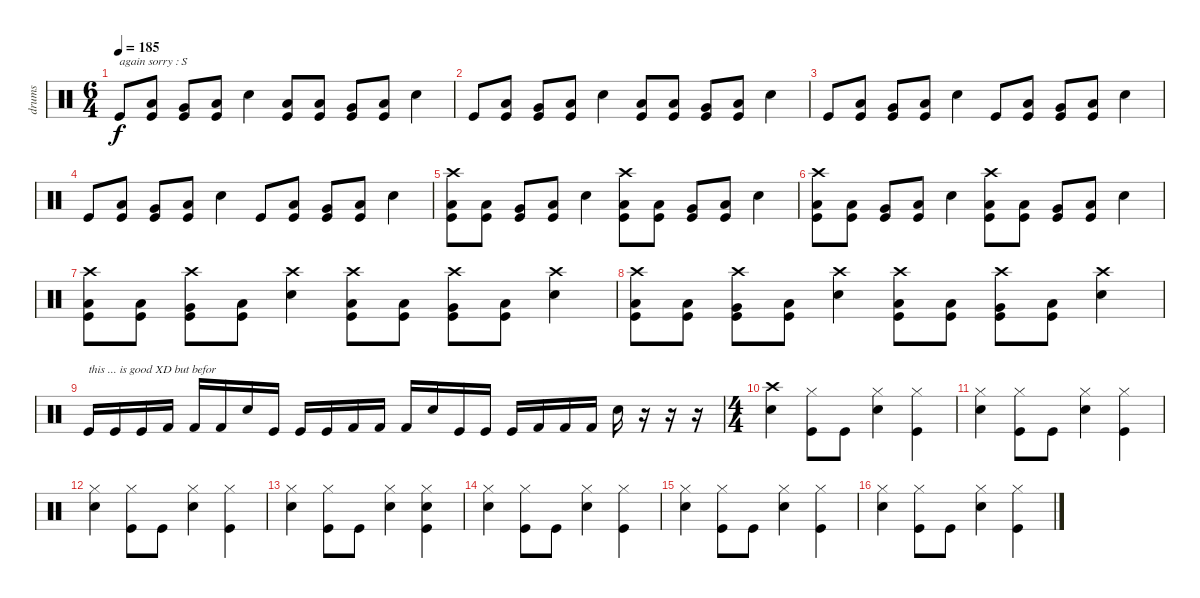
\track ("drums" "drums") {instrument percussion}
\staff {score}
\articulation defaults
\ts (6 4)
\tempo 185
\clef neutral
\ks c "Kick (hit)".8{txt "again sorry : S " dy f}
("Low Tom (hit)" "Kick (hit)").8 ("Very Low Tom (hit)" "Kick (hit)").8 ("Low Floor Tom (hit)" "Kick (hit)").8 "Electric Snare (hit)".4 ("Low Tom (hit)" "Kick (hit)").8 ("Low Tom (hit)" "Kick (hit)").8 ("Very Low Tom (hit)" "Kick (hit)").8 ("Low Floor Tom (hit)" "Kick (hit)").8 "Electric Snare (hit)".4 |
"Kick (hit)".8 ("Low Tom (hit)" "Kick (hit)").8 ("Very Low Tom (hit)" "Kick (hit)").8 ("Low Floor Tom (hit)" "Kick (hit)").8 "Electric Snare (hit)".4 ("Low Tom (hit)" "Kick (hit)").8 ("Low Tom (hit)" "Kick (hit)").8 ("Very Low Tom (hit)" "Kick (hit)").8 ("Low Floor Tom (hit)" "Kick (hit)").8 "Electric Snare (hit)".4 |
"Kick (hit)".8 ("Low Tom (hit)" "Kick (hit)").8 ("Very Low Tom (hit)" "Kick (hit)").8 ("Low Floor Tom (hit)" "Kick (hit)").8 "Electric Snare (hit)".4 "Kick (hit)".8 ("Low Tom (hit)" "Kick (hit)").8 ("Very Low Tom (hit)" "Kick (hit)").8 ("Low Floor Tom (hit)" "Kick (hit)").8 "Electric Snare (hit)".4 |
"Kick (hit)".8 ("Low Tom (hit)" "Kick (hit)").8 ("Very Low Tom (hit)" "Kick (hit)").8 ("Low Floor Tom (hit)" "Kick (hit)").8 "Electric Snare (hit)".4 "Kick (hit)".8 ("Low Tom (hit)" "Kick (hit)").8 ("Very Low Tom (hit)" "Kick (hit)").8 ("Low Floor Tom (hit)" "Kick (hit)").8 "Electric Snare (hit)".4 |
("Crash high (hit)" "Low Tom (hit)" "Kick (hit)").8 ("Low Tom (hit)" "Kick (hit)").8 ("Very Low Tom (hit)" "Kick (hit)").8 ("Low Floor Tom (hit)" "Kick (hit)").8 "Electric Snare (hit)".4 ("Crash high (hit)" "Low Tom (hit)" "Kick (hit)").8 ("Low Tom (hit)" "Kick (hit)").8 ("Very Low Tom (hit)" "Kick (hit)").8 ("Low Floor Tom (hit)" "Kick (hit)").8 "Electric Snare (hit)".4 |
("Crash high (hit)" "Low Tom (hit)" "Kick (hit)").8 ("Low Tom (hit)" "Kick (hit)").8 ("Very Low Tom (hit)" "Kick (hit)").8 ("Low Floor Tom (hit)" "Kick (hit)").8 "Electric Snare (hit)".4 ("Crash high (hit)" "Low Tom (hit)" "Kick (hit)").8 ("Low Tom (hit)" "Kick (hit)").8 ("Very Low Tom (hit)" "Kick (hit)").8 ("Low Floor Tom (hit)" "Kick (hit)").8 "Electric Snare (hit)".4 |
("Crash high (hit)" "Low Tom (hit)" "Kick (hit)").8 ("Low Tom (hit)" "Kick (hit)").8 ("Crash high (hit)" "Very Low Tom (hit)" "Kick (hit)").8 ("Low Floor Tom (hit)" "Kick (hit)").8 ("Crash high (hit)" "Electric Snare (hit)").4 ("Crash high (hit)" "Low Tom (hit)" "Kick (hit)").8 ("Low Tom (hit)" "Kick (hit)").8 ("Crash high (hit)" "Very Low Tom (hit)" "Kick (hit)").8 ("Low Floor Tom (hit)" "Kick (hit)").8 ("Crash high (hit)" "Electric Snare (hit)").4 |
("Crash high (hit)" "Low Tom (hit)" "Kick (hit)").8 ("Low Tom (hit)" "Kick (hit)").8 ("Crash high (hit)" "Very Low Tom (hit)" "Kick (hit)").8 ("Low Floor Tom (hit)" "Kick (hit)").8 ("Crash high (hit)" "Electric Snare (hit)").4 ("Crash high (hit)" "Low Tom (hit)" "Kick (hit)").8 ("Low Tom (hit)" "Kick (hit)").8 ("Crash high (hit)" "Very Low Tom (hit)" "Kick (hit)").8 ("Low Floor Tom (hit)" "Kick (hit)").8 ("Crash high (hit)" "Electric Snare (hit)").4 |
"Kick (hit)".16{txt "this ... is good XD but befor"} "Kick (hit)".16 "Kick (hit)".16 "Kick (hit) 2".16 "Kick (hit) 2".16 "Kick (hit) 2".16 "Electric Snare (hit)".16 "Kick (hit)".16 "Kick (hit)".16 "Kick (hit)".16 "Kick (hit) 2".16 "Kick (hit) 2".16 "Kick (hit) 2".16 "Electric Snare (hit)".16 "Kick (hit)".16 "Kick (hit)".16 "Kick (hit)".16 "Kick (hit) 2".16 "Kick (hit) 2".16 "Kick (hit) 2".16 "Electric Snare (hit)".16 r.16 r.16 r.16 |
\ts (4 4)
("Crash high (hit)" "Electric Snare (hit)").4 ("Hi-Hat (closed)" "Kick (hit)").8 "Kick (hit)".8 ("Hi-Hat (closed)" "Electric Snare (hit)").4 ("Hi-Hat (closed)" "Kick (hit)").4 |
("Hi-Hat (closed)" "Electric Snare (hit)").4 ("Hi-Hat (closed)" "Kick (hit)").8 "Kick (hit)".8 ("Hi-Hat (closed)" "Electric Snare (hit)").4 ("Hi-Hat (closed)" "Kick (hit)").4 |
("Hi-Hat (closed)" "Electric Snare (hit)").4 ("Hi-Hat (closed)" "Kick (hit)").8 "Kick (hit)".8 ("Hi-Hat (closed)" "Electric Snare (hit)").4 ("Hi-Hat (closed)" "Kick (hit)").4 |
("Hi-Hat (closed)" "Electric Snare (hit)").4 ("Hi-Hat (closed)" "Kick (hit)").8 "Kick (hit)".8 ("Hi-Hat (closed)" "Electric Snare (hit)").4 ("Hi-Hat (closed)" "Electric Snare (hit)" "Kick (hit)").4 |
("Hi-Hat (closed)" "Electric Snare (hit)").4 ("Hi-Hat (closed)" "Kick (hit)").8 "Kick (hit)".8 ("Hi-Hat (closed)" "Electric Snare (hit)").4 ("Hi-Hat (closed)" "Kick (hit)").4 |
("Hi-Hat (closed)" "Electric Snare (hit)").4 ("Hi-Hat (closed)" "Kick (hit)").8 "Kick (hit)".8 ("Hi-Hat (closed)" "Electric Snare (hit)").4 ("Hi-Hat (closed)" "Kick (hit)").4 |
("Hi-Hat (closed)" "Electric Snare (hit)").4 ("Hi-Hat (closed)" "Kick (hit)").8 "Kick (hit)".8 ("Hi-Hat (closed)" "Electric Snare (hit)").4 ("Hi-Hat (closed)" "Kick (hit)").4
